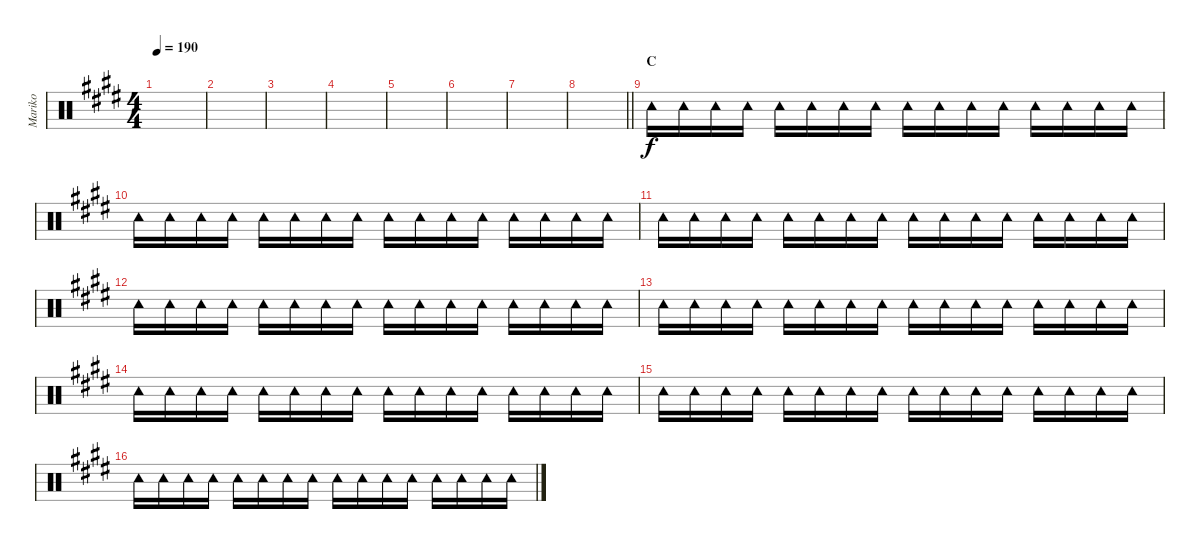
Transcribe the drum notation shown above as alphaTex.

\track ("Mariko" "Mariko") {mute instrument percussion}
\staff {score}
\articulation defaults
\ts (4 4)
\tempo 190
\clef neutral
\ks e
|
|
|
|
|
|
|
\barLineRight lightlight
|
\section ("" "C")
"Tambourine (hit)".16 "Tambourine (hit)".16 "Tambourine (hit)".16 "Tambourine (hit)".16 "Tambourine (hit)".16 "Tambourine (hit)".16 "Tambourine (hit)".16 "Tambourine (hit)".16 "Tambourine (hit)".16 "Tambourine (hit)".16 "Tambourine (hit)".16 "Tambourine (hit)".16 "Tambourine (hit)".16 "Tambourine (hit)".16 "Tambourine (hit)".16 "Tambourine (hit)".16 |
"Tambourine (hit)".16 "Tambourine (hit)".16 "Tambourine (hit)".16 "Tambourine (hit)".16 "Tambourine (hit)".16 "Tambourine (hit)".16 "Tambourine (hit)".16 "Tambourine (hit)".16 "Tambourine (hit)".16 "Tambourine (hit)".16 "Tambourine (hit)".16 "Tambourine (hit)".16 "Tambourine (hit)".16 "Tambourine (hit)".16 "Tambourine (hit)".16 "Tambourine (hit)".16 |
"Tambourine (hit)".16 "Tambourine (hit)".16 "Tambourine (hit)".16 "Tambourine (hit)".16 "Tambourine (hit)".16 "Tambourine (hit)".16 "Tambourine (hit)".16 "Tambourine (hit)".16 "Tambourine (hit)".16 "Tambourine (hit)".16 "Tambourine (hit)".16 "Tambourine (hit)".16 "Tambourine (hit)".16 "Tambourine (hit)".16 "Tambourine (hit)".16 "Tambourine (hit)".16 |
"Tambourine (hit)".16 "Tambourine (hit)".16 "Tambourine (hit)".16 "Tambourine (hit)".16 "Tambourine (hit)".16 "Tambourine (hit)".16 "Tambourine (hit)".16 "Tambourine (hit)".16 "Tambourine (hit)".16 "Tambourine (hit)".16 "Tambourine (hit)".16 "Tambourine (hit)".16 "Tambourine (hit)".16 "Tambourine (hit)".16 "Tambourine (hit)".16 "Tambourine (hit)".16 |
"Tambourine (hit)".16 "Tambourine (hit)".16 "Tambourine (hit)".16 "Tambourine (hit)".16 "Tambourine (hit)".16 "Tambourine (hit)".16 "Tambourine (hit)".16 "Tambourine (hit)".16 "Tambourine (hit)".16 "Tambourine (hit)".16 "Tambourine (hit)".16 "Tambourine (hit)".16 "Tambourine (hit)".16 "Tambourine (hit)".16 "Tambourine (hit)".16 "Tambourine (hit)".16 |
"Tambourine (hit)".16 "Tambourine (hit)".16 "Tambourine (hit)".16 "Tambourine (hit)".16 "Tambourine (hit)".16 "Tambourine (hit)".16 "Tambourine (hit)".16 "Tambourine (hit)".16 "Tambourine (hit)".16 "Tambourine (hit)".16 "Tambourine (hit)".16 "Tambourine (hit)".16 "Tambourine (hit)".16 "Tambourine (hit)".16 "Tambourine (hit)".16 "Tambourine (hit)".16 |
"Tambourine (hit)".16 "Tambourine (hit)".16 "Tambourine (hit)".16 "Tambourine (hit)".16 "Tambourine (hit)".16 "Tambourine (hit)".16 "Tambourine (hit)".16 "Tambourine (hit)".16 "Tambourine (hit)".16 "Tambourine (hit)".16 "Tambourine (hit)".16 "Tambourine (hit)".16 "Tambourine (hit)".16 "Tambourine (hit)".16 "Tambourine (hit)".16 "Tambourine (hit)".16 |
"Tambourine (hit)".16 "Tambourine (hit)".16 "Tambourine (hit)".16 "Tambourine (hit)".16 "Tambourine (hit)".16 "Tambourine (hit)".16 "Tambourine (hit)".16 "Tambourine (hit)".16 "Tambourine (hit)".16 "Tambourine (hit)".16 "Tambourine (hit)".16 "Tambourine (hit)".16 "Tambourine (hit)".16 "Tambourine (hit)".16 "Tambourine (hit)".16 "Tambourine (hit)".16
